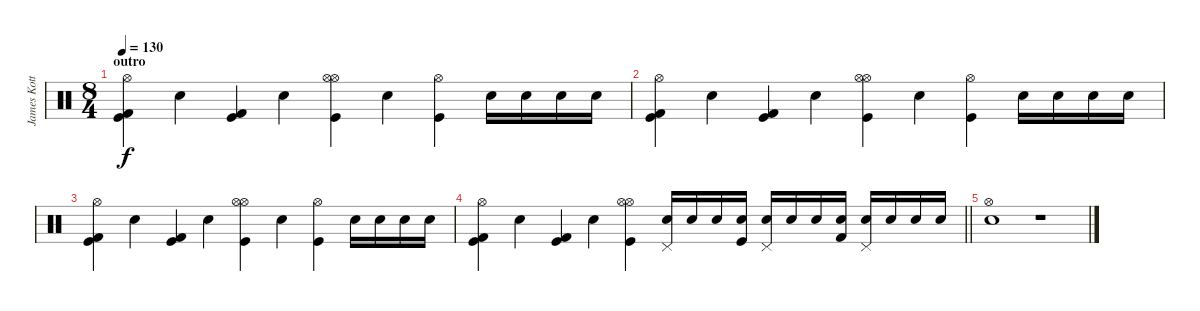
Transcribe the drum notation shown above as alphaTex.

\track ("James Kottak" "James Kott") {instrument percussion}
\staff {score}
\articulation defaults
\ts (8 4)
\section ("" "outro")
\tempo 130
\clef neutral
\ks c
("Hi-Hat (open)" "Kick (hit)" "Kick (hit) 2").4{dy f} "Snare (hit) 2".4 ("Kick (hit) 2" "Kick (hit)").4 "Snare (hit) 2".4 ("Hi-Hat (open)" "Kick (hit)" "Hi-Hat (open)").4 "Snare (hit) 2".4 ("Hi-Hat (open)" "Kick (hit)").4 "Snare (hit) 2".16 "Snare (hit) 2".16 "Snare (hit) 2".16 "Snare (hit) 2".16 |
("Hi-Hat (open)" "Kick (hit)" "Kick (hit) 2").4 "Snare (hit) 2".4 ("Kick (hit) 2" "Kick (hit)").4 "Snare (hit) 2".4 ("Hi-Hat (open)" "Kick (hit)" "Hi-Hat (open)").4 "Snare (hit) 2".4 ("Hi-Hat (open)" "Kick (hit)").4 "Snare (hit) 2".16 "Snare (hit) 2".16 "Snare (hit) 2".16 "Snare (hit) 2".16 |
("Hi-Hat (open)" "Kick (hit)" "Kick (hit) 2").4 "Snare (hit) 2".4 ("Kick (hit) 2" "Kick (hit)").4 "Snare (hit) 2".4 ("Hi-Hat (open)" "Kick (hit)" "Hi-Hat (open)").4 "Snare (hit) 2".4 ("Hi-Hat (open)" "Kick (hit)").4 "Snare (hit) 2".16 "Snare (hit) 2".16 "Snare (hit) 2".16 "Snare (hit) 2".16 |
\barLineRight lightlight
("Hi-Hat (open)" "Kick (hit)" "Kick (hit) 2").4 "Snare (hit) 2".4 ("Kick (hit) 2" "Kick (hit)").4 "Snare (hit) 2".4 ("Hi-Hat (open)" "Kick (hit)" "Hi-Hat (open)").4 ("Pedal Hi-Hat (hit)" "Snare (hit) 2").16 "Snare (hit) 2".16 "Snare (hit) 2".16 ("Snare (hit) 2" "Kick (hit)").16 ("Pedal Hi-Hat (hit)" "Snare (hit) 2").16 "Snare (hit) 2".16 "Snare (hit) 2".16 ("Snare (hit) 2" "Kick (hit) 2").16 ("Pedal Hi-Hat (hit)" "Snare (hit) 2").16 "Snare (hit) 2".16 "Snare (hit) 2".16 "Snare (hit) 2".16 |
("Hi-Hat (open)" "Snare (hit) 2").1 r.1
